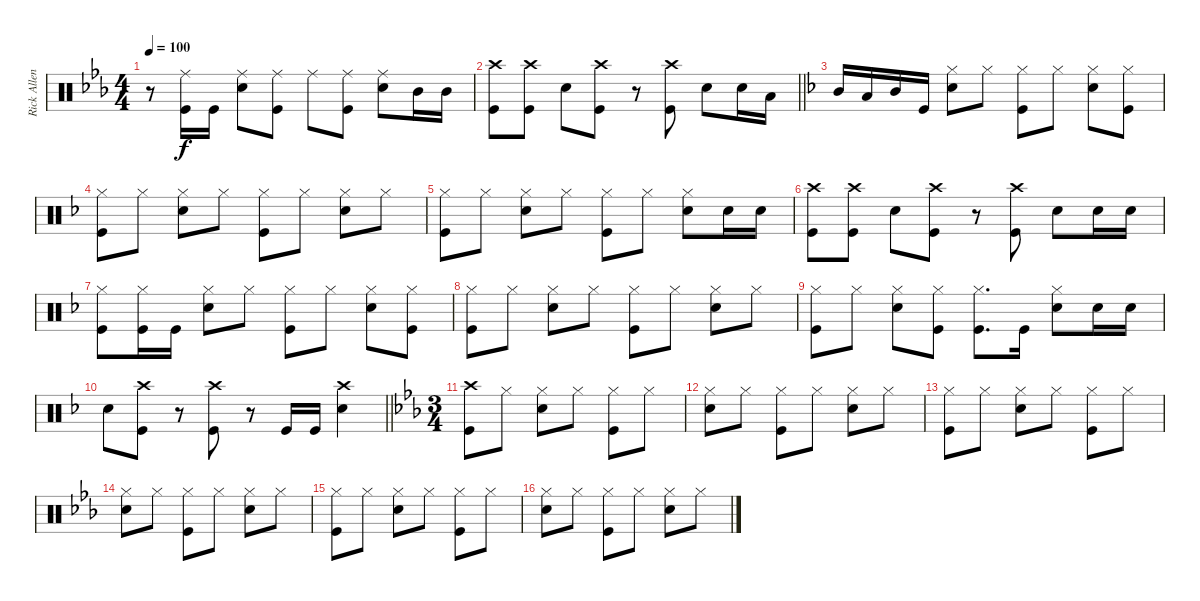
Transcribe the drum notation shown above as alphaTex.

\track ("Rick Allen" "Rick Allen") {instrument percussion}
\staff {score}
\articulation defaults
\ts (4 4)
\tempo 100
\clef neutral
\ks cminor
r.8{dy f} ("Ride (middle)" "Kick (hit)").16 "Kick (hit)".16 ("Ride (middle)" "Snare (hit) 2").8 ("Ride (middle)" "Kick (hit)").8 "Ride (middle)".8 ("Ride (middle)" "Kick (hit)").8 ("Ride (middle)" "Snare (hit) 2").8 "Mid Tom (hit)".16 "Mid Tom (hit)".16 |
\barLineRight lightlight
("Crash high (hit)" "Kick (hit)").8 ("Crash high (hit)" "Kick (hit)").8 "Snare (hit) 2".8 ("Crash high (hit)" "Kick (hit)").8 r.8 ("Crash high (hit)" "Kick (hit)").8 "Snare (hit) 2".8 "Snare (hit) 2".16 "Low Tom (hit)".16 |
\ks dminor "Mid Tom (hit)".16 "Low Tom (hit)".16 "Mid Tom (hit)".16 "Kick (hit)".16
("Hi-Hat (closed)" "Snare (hit) 2").8 "Hi-Hat (closed)".8 ("Hi-Hat (closed)" "Kick (hit)").8 "Hi-Hat (closed)".8 ("Hi-Hat (closed)" "Snare (hit) 2").8 ("Hi-Hat (closed)" "Kick (hit)").8 |
("Hi-Hat (closed)" "Kick (hit)").8 "Hi-Hat (closed)".8 ("Hi-Hat (closed)" "Snare (hit) 2").8 "Hi-Hat (closed)".8 ("Hi-Hat (closed)" "Kick (hit)").8 "Hi-Hat (closed)".8 ("Hi-Hat (closed)" "Snare (hit) 2").8 "Hi-Hat (closed)".8 |
("Hi-Hat (closed)" "Kick (hit)").8 "Hi-Hat (closed)".8 ("Hi-Hat (closed)" "Snare (hit) 2").8 "Hi-Hat (closed)".8 ("Hi-Hat (closed)" "Kick (hit)").8 "Hi-Hat (closed)".8 ("Hi-Hat (closed)" "Snare (hit) 2").8 "Snare (hit) 2".16 "Snare (hit) 2".16 |
("Crash high (hit)" "Kick (hit)").8 ("Crash high (hit)" "Kick (hit)").8 "Snare (hit) 2".8 ("Crash high (hit)" "Kick (hit)").8 r.8 ("Crash high (hit)" "Kick (hit)").8 "Snare (hit) 2".8 "Snare (hit) 2".16 "Snare (hit) 2".16 |
("Hi-Hat (closed)" "Kick (hit)").8 ("Hi-Hat (closed)" "Kick (hit)").16 "Kick (hit)".16 ("Hi-Hat (closed)" "Snare (hit) 2").8 "Hi-Hat (closed)".8 ("Hi-Hat (closed)" "Kick (hit)").8 "Hi-Hat (closed)".8 ("Hi-Hat (closed)" "Snare (hit) 2").8 ("Hi-Hat (closed)" "Kick (hit)").8 |
("Hi-Hat (closed)" "Kick (hit)").8 "Hi-Hat (closed)".8 ("Hi-Hat (closed)" "Snare (hit) 2").8 "Hi-Hat (closed)".8 ("Hi-Hat (closed)" "Kick (hit)").8 "Hi-Hat (closed)".8 ("Hi-Hat (closed)" "Snare (hit) 2").8 "Hi-Hat (closed)".8 |
("Hi-Hat (closed)" "Kick (hit)").8 "Hi-Hat (closed)".8 ("Hi-Hat (closed)" "Snare (hit) 2").8 ("Hi-Hat (closed)" "Kick (hit)").8 ("Hi-Hat (closed)" "Kick (hit)").8{d} "Kick (hit)".16 ("Hi-Hat (closed)" "Snare (hit) 2").8 "Snare (hit) 2".16 "Snare (hit) 2".16 |
\barLineRight lightlight "Snare (hit) 2".8
("Crash high (hit)" "Kick (hit)").8 r.8 ("Crash high (hit)" "Kick (hit)").8 r.8 "Kick (hit)".16 "Kick (hit)".16 ("Crash high (hit)" "Snare (hit) 2").4 |
\ts (3 4)
\ks cminor
("Crash high (hit)" "Kick (hit)").8 "Hi-Hat (closed)".8 ("Hi-Hat (closed)" "Snare (hit) 2").8 "Hi-Hat (closed)".8 ("Hi-Hat (closed)" "Kick (hit)").8 "Hi-Hat (closed)".8 |
("Hi-Hat (closed)" "Snare (hit) 2").8 "Hi-Hat (closed)".8 ("Hi-Hat (closed)" "Kick (hit)").8 "Hi-Hat (closed)".8 ("Hi-Hat (closed)" "Snare (hit) 2").8 "Hi-Hat (closed)".8 |
("Hi-Hat (closed)" "Kick (hit)").8 "Hi-Hat (closed)".8 ("Hi-Hat (closed)" "Snare (hit) 2").8 "Hi-Hat (closed)".8 ("Hi-Hat (closed)" "Kick (hit)").8 "Hi-Hat (closed)".8 |
("Hi-Hat (closed)" "Snare (hit) 2").8 "Hi-Hat (closed)".8 ("Hi-Hat (closed)" "Kick (hit)").8 "Hi-Hat (closed)".8 ("Hi-Hat (closed)" "Snare (hit) 2").8 "Hi-Hat (closed)".8 |
("Hi-Hat (closed)" "Kick (hit)").8 "Hi-Hat (closed)".8 ("Hi-Hat (closed)" "Snare (hit) 2").8 "Hi-Hat (closed)".8 ("Hi-Hat (closed)" "Kick (hit)").8 "Hi-Hat (closed)".8 |
("Hi-Hat (closed)" "Snare (hit) 2").8 "Hi-Hat (closed)".8 ("Hi-Hat (closed)" "Kick (hit)").8 "Hi-Hat (closed)".8 ("Hi-Hat (closed)" "Snare (hit) 2").8 "Hi-Hat (closed)".8
